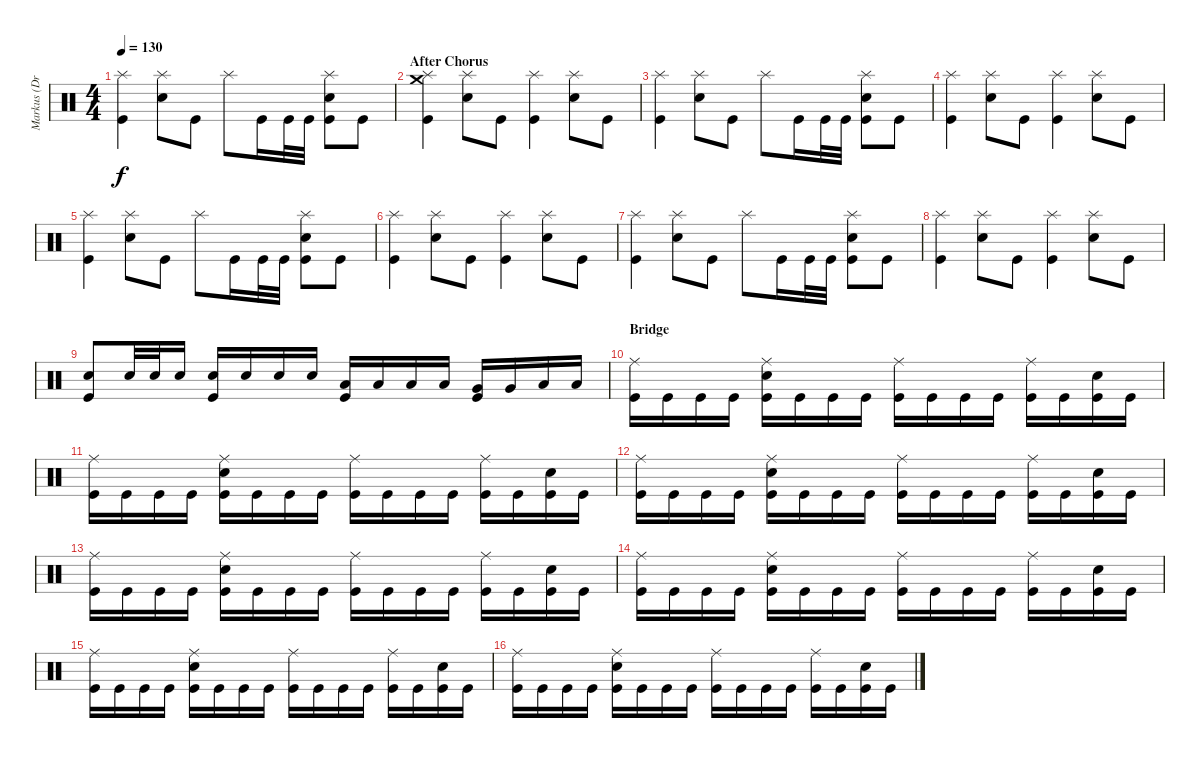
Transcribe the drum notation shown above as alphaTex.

\track ("Markus (Drums)" "Markus (Dr") {instrument percussion}
\staff {score}
\articulation defaults
\ts (4 4)
\tempo 130
\clef neutral
\ks c
("Splash (hit)" "Kick (hit)").4{dy f} ("Splash (hit)" "Electric Snare (hit)").8 "Kick (hit)".8 "Splash (hit)".8 "Kick (hit)".16 "Kick (hit)".32 "Kick (hit)".32 ("Splash (hit)" "Electric Snare (hit)" "Kick (hit)").8 "Kick (hit)".8 |
\section ("" "After Chorus")
("Crash medium (hit)" "Splash (hit)" "Kick (hit)").4 ("Splash (hit)" "Electric Snare (hit)").8 "Kick (hit)".8 ("Splash (hit)" "Kick (hit)").4 ("Splash (hit)" "Electric Snare (hit)").8 "Kick (hit)".8 |
("Splash (hit)" "Kick (hit)").4 ("Splash (hit)" "Electric Snare (hit)").8 "Kick (hit)".8 "Splash (hit)".8 "Kick (hit)".16 "Kick (hit)".32 "Kick (hit)".32 ("Splash (hit)" "Electric Snare (hit)" "Kick (hit)").8 "Kick (hit)".8 |
("Splash (hit)" "Kick (hit)").4 ("Splash (hit)" "Electric Snare (hit)").8 "Kick (hit)".8 ("Splash (hit)" "Kick (hit)").4 ("Splash (hit)" "Electric Snare (hit)").8 "Kick (hit)".8 |
("Splash (hit)" "Kick (hit)").4 ("Splash (hit)" "Electric Snare (hit)").8 "Kick (hit)".8 "Splash (hit)".8 "Kick (hit)".16 "Kick (hit)".32 "Kick (hit)".32 ("Splash (hit)" "Electric Snare (hit)" "Kick (hit)").8 "Kick (hit)".8 |
("Splash (hit)" "Kick (hit)").4 ("Splash (hit)" "Electric Snare (hit)").8 "Kick (hit)".8 ("Splash (hit)" "Kick (hit)").4 ("Splash (hit)" "Electric Snare (hit)").8 "Kick (hit)".8 |
("Splash (hit)" "Kick (hit)").4 ("Splash (hit)" "Electric Snare (hit)").8 "Kick (hit)".8 "Splash (hit)".8 "Kick (hit)".16 "Kick (hit)".32 "Kick (hit)".32 ("Splash (hit)" "Electric Snare (hit)" "Kick (hit)").8 "Kick (hit)".8 |
("Splash (hit)" "Kick (hit)").4 ("Splash (hit)" "Electric Snare (hit)").8 "Kick (hit)".8 ("Splash (hit)" "Kick (hit)").4 ("Splash (hit)" "Electric Snare (hit)").8 "Kick (hit)".8 |
("Electric Snare (hit)" "Kick (hit)").8 "Electric Snare (hit)".32 "Electric Snare (hit)".32 "Electric Snare (hit)".16 ("Electric Snare (hit)" "Kick (hit)").16 "Electric Snare (hit)".16 "Electric Snare (hit)".16 "Electric Snare (hit)".16 ("Low Tom (hit)" "Kick (hit)").16 "Low Tom (hit)".16 "Low Tom (hit)".16 "Low Tom (hit)".16 ("Very Low Tom (hit)" "Kick (hit)").16 "Very Low Tom (hit)".16 "Low Floor Tom (hit)".16 "Low Floor Tom (hit)".16 |
\section ("" "Bridge")
("Ride (middle)" "Kick (hit)").16 "Kick (hit)".16 "Kick (hit)".16 "Kick (hit)".16 ("Ride (middle)" "Electric Snare (hit)" "Kick (hit)").16 "Kick (hit)".16 "Kick (hit)".16 "Kick (hit)".16 ("Ride (middle)" "Kick (hit)").16 "Kick (hit)".16 "Kick (hit)".16 "Kick (hit)".16 ("Ride (middle)" "Kick (hit)").16 "Kick (hit)".16 ("Electric Snare (hit)" "Kick (hit)").16 "Kick (hit)".16 |
("Ride (middle)" "Kick (hit)").16 "Kick (hit)".16 "Kick (hit)".16 "Kick (hit)".16 ("Ride (middle)" "Electric Snare (hit)" "Kick (hit)").16 "Kick (hit)".16 "Kick (hit)".16 "Kick (hit)".16 ("Ride (middle)" "Kick (hit)").16 "Kick (hit)".16 "Kick (hit)".16 "Kick (hit)".16 ("Ride (middle)" "Kick (hit)").16 "Kick (hit)".16 ("Electric Snare (hit)" "Kick (hit)").16 "Kick (hit)".16 |
("Ride (middle)" "Kick (hit)").16 "Kick (hit)".16 "Kick (hit)".16 "Kick (hit)".16 ("Ride (middle)" "Electric Snare (hit)" "Kick (hit)").16 "Kick (hit)".16 "Kick (hit)".16 "Kick (hit)".16 ("Ride (middle)" "Kick (hit)").16 "Kick (hit)".16 "Kick (hit)".16 "Kick (hit)".16 ("Ride (middle)" "Kick (hit)").16 "Kick (hit)".16 ("Electric Snare (hit)" "Kick (hit)").16 "Kick (hit)".16 |
("Ride (middle)" "Kick (hit)").16 "Kick (hit)".16 "Kick (hit)".16 "Kick (hit)".16 ("Ride (middle)" "Electric Snare (hit)" "Kick (hit)").16 "Kick (hit)".16 "Kick (hit)".16 "Kick (hit)".16 ("Ride (middle)" "Kick (hit)").16 "Kick (hit)".16 "Kick (hit)".16 "Kick (hit)".16 ("Ride (middle)" "Kick (hit)").16 "Kick (hit)".16 ("Electric Snare (hit)" "Kick (hit)").16 "Kick (hit)".16 |
("Ride (middle)" "Kick (hit)").16 "Kick (hit)".16 "Kick (hit)".16 "Kick (hit)".16 ("Ride (middle)" "Electric Snare (hit)" "Kick (hit)").16 "Kick (hit)".16 "Kick (hit)".16 "Kick (hit)".16 ("Ride (middle)" "Kick (hit)").16 "Kick (hit)".16 "Kick (hit)".16 "Kick (hit)".16 ("Ride (middle)" "Kick (hit)").16 "Kick (hit)".16 ("Electric Snare (hit)" "Kick (hit)").16 "Kick (hit)".16 |
("Ride (middle)" "Kick (hit)").16 "Kick (hit)".16 "Kick (hit)".16 "Kick (hit)".16 ("Ride (middle)" "Electric Snare (hit)" "Kick (hit)").16 "Kick (hit)".16 "Kick (hit)".16 "Kick (hit)".16 ("Ride (middle)" "Kick (hit)").16 "Kick (hit)".16 "Kick (hit)".16 "Kick (hit)".16 ("Ride (middle)" "Kick (hit)").16 "Kick (hit)".16 ("Electric Snare (hit)" "Kick (hit)").16 "Kick (hit)".16 |
("Ride (middle)" "Kick (hit)").16 "Kick (hit)".16 "Kick (hit)".16 "Kick (hit)".16 ("Ride (middle)" "Electric Snare (hit)" "Kick (hit)").16 "Kick (hit)".16 "Kick (hit)".16 "Kick (hit)".16 ("Ride (middle)" "Kick (hit)").16 "Kick (hit)".16 "Kick (hit)".16 "Kick (hit)".16 ("Ride (middle)" "Kick (hit)").16 "Kick (hit)".16 ("Electric Snare (hit)" "Kick (hit)").16 "Kick (hit)".16
